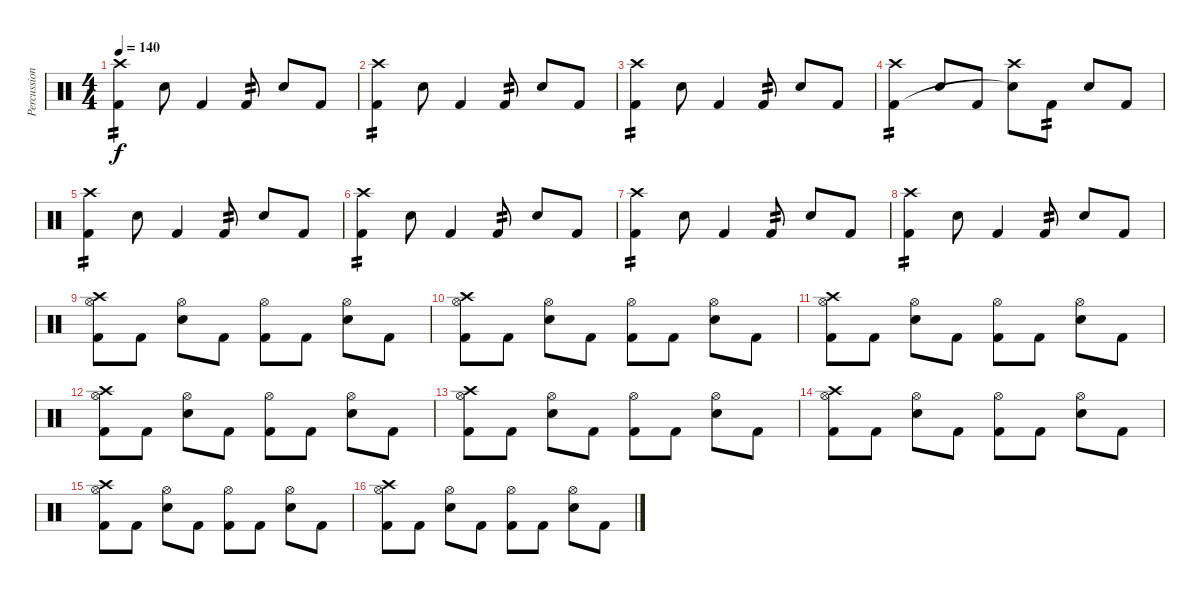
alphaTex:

\track ("Percussion" "Percussion") {instrument percussion}
\staff {score}
\articulation defaults
\ts (4 4)
\tempo 140
\clef neutral
\ks c
("Crash high (hit)" "Kick (hit) 2").4{tp 2 dy f} "Electric Snare (hit)".8 "Kick (hit) 2".4 "Kick (hit) 2".8{tp 2} "Electric Snare (hit)".8 "Kick (hit) 2".8 |
("Crash high (hit)" "Kick (hit) 2").4{tp 2} "Electric Snare (hit)".8 "Kick (hit) 2".4 "Kick (hit) 2".8{tp 2} "Electric Snare (hit)".8 "Kick (hit) 2".8 |
("Crash high (hit)" "Kick (hit) 2").4{tp 2} "Electric Snare (hit)".8 "Kick (hit) 2".4 "Kick (hit) 2".8{tp 2} "Electric Snare (hit)".8 "Kick (hit) 2".8 |
("Crash high (hit)" "Kick (hit) 2").4{tp 2} "Electric Snare (hit)".8 "Kick (hit) 2".8 ("Crash high (hit)" "Snare (hit)"{t}).8 "Kick (hit) 2".8{tp 2} "Electric Snare (hit)".8 "Kick (hit) 2".8 |
("Crash high (hit)" "Kick (hit) 2").4{tp 2} "Electric Snare (hit)".8 "Kick (hit) 2".4 "Kick (hit) 2".8{tp 2} "Electric Snare (hit)".8 "Kick (hit) 2".8 |
("Crash high (hit)" "Kick (hit) 2").4{tp 2} "Electric Snare (hit)".8 "Kick (hit) 2".4 "Kick (hit) 2".8{tp 2} "Electric Snare (hit)".8 "Kick (hit) 2".8 |
("Crash high (hit)" "Kick (hit) 2").4{tp 2} "Electric Snare (hit)".8 "Kick (hit) 2".4 "Kick (hit) 2".8{tp 2} "Electric Snare (hit)".8 "Kick (hit) 2".8 |
("Crash high (hit)" "Kick (hit) 2").4{tp 2} "Electric Snare (hit)".8 "Kick (hit) 2".4 "Kick (hit) 2".8{tp 2} "Electric Snare (hit)".8 "Kick (hit) 2".8 |
("Hi-Hat (open)" "Crash high (hit)" "Kick (hit) 2").8 "Kick (hit) 2".8 ("Hi-Hat (open)" "Electric Snare (hit)").8 "Kick (hit) 2".8 ("Hi-Hat (open)" "Kick (hit) 2").8 "Kick (hit) 2".8 ("Hi-Hat (open)" "Electric Snare (hit)").8 "Kick (hit) 2".8 |
("Hi-Hat (open)" "Crash high (hit)" "Kick (hit) 2").8 "Kick (hit) 2".8 ("Hi-Hat (open)" "Electric Snare (hit)").8 "Kick (hit) 2".8 ("Hi-Hat (open)" "Kick (hit) 2").8 "Kick (hit) 2".8 ("Hi-Hat (open)" "Electric Snare (hit)").8 "Kick (hit) 2".8 |
("Hi-Hat (open)" "Crash high (hit)" "Kick (hit) 2").8 "Kick (hit) 2".8 ("Hi-Hat (open)" "Electric Snare (hit)").8 "Kick (hit) 2".8 ("Hi-Hat (open)" "Kick (hit) 2").8 "Kick (hit) 2".8 ("Hi-Hat (open)" "Electric Snare (hit)").8 "Kick (hit) 2".8 |
("Hi-Hat (open)" "Crash high (hit)" "Kick (hit) 2").8 "Kick (hit) 2".8 ("Hi-Hat (open)" "Electric Snare (hit)").8 "Kick (hit) 2".8 ("Hi-Hat (open)" "Kick (hit) 2").8 "Kick (hit) 2".8 ("Hi-Hat (open)" "Electric Snare (hit)").8 "Kick (hit) 2".8 |
("Hi-Hat (open)" "Crash high (hit)" "Kick (hit) 2").8 "Kick (hit) 2".8 ("Hi-Hat (open)" "Electric Snare (hit)").8 "Kick (hit) 2".8 ("Hi-Hat (open)" "Kick (hit) 2").8 "Kick (hit) 2".8 ("Hi-Hat (open)" "Electric Snare (hit)").8 "Kick (hit) 2".8 |
("Hi-Hat (open)" "Crash high (hit)" "Kick (hit) 2").8 "Kick (hit) 2".8 ("Hi-Hat (open)" "Electric Snare (hit)").8 "Kick (hit) 2".8 ("Hi-Hat (open)" "Kick (hit) 2").8 "Kick (hit) 2".8 ("Hi-Hat (open)" "Electric Snare (hit)").8 "Kick (hit) 2".8 |
("Hi-Hat (open)" "Crash high (hit)" "Kick (hit) 2").8 "Kick (hit) 2".8 ("Hi-Hat (open)" "Electric Snare (hit)").8 "Kick (hit) 2".8 ("Hi-Hat (open)" "Kick (hit) 2").8 "Kick (hit) 2".8 ("Hi-Hat (open)" "Electric Snare (hit)").8 "Kick (hit) 2".8 |
("Hi-Hat (open)" "Crash high (hit)" "Kick (hit) 2").8 "Kick (hit) 2".8 ("Hi-Hat (open)" "Electric Snare (hit)").8 "Kick (hit) 2".8 ("Hi-Hat (open)" "Kick (hit) 2").8 "Kick (hit) 2".8 ("Hi-Hat (open)" "Electric Snare (hit)").8 "Kick (hit) 2".8
